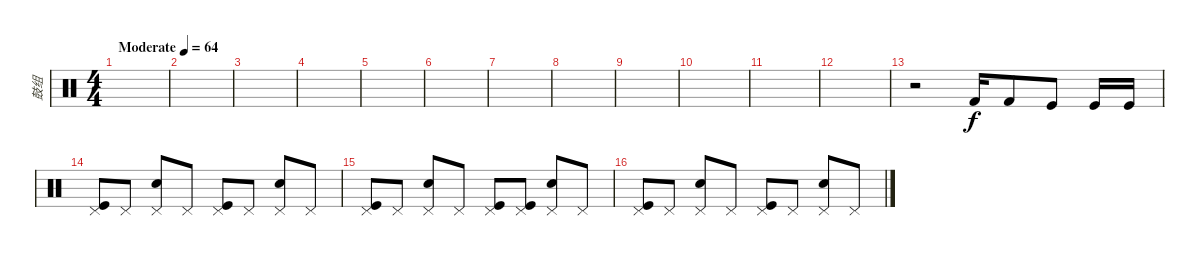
\track ("鼓组" "鼓组") {instrument percussion}
\staff {score}
\articulation defaults
\ts (4 4)
\tempo (64 "Moderate")
\clef neutral
\ks c
|
|
|
|
|
|
|
|
|
|
|
|
r.2 "Kick (hit) 2".16 "Kick (hit) 2".8 "Kick (hit)".8 "Kick (hit)".16 "Kick (hit)".16 |
("Kick (hit)" "Pedal Hi-Hat (hit)").8 "Pedal Hi-Hat (hit)".8 ("Snare (hit) 2" "Pedal Hi-Hat (hit)").8 "Pedal Hi-Hat (hit)".8 ("Kick (hit)" "Pedal Hi-Hat (hit)").8 "Pedal Hi-Hat (hit)".8 ("Snare (hit) 2" "Pedal Hi-Hat (hit)").8 "Pedal Hi-Hat (hit)".8 |
("Kick (hit)" "Pedal Hi-Hat (hit)").8 "Pedal Hi-Hat (hit)".8 ("Snare (hit) 2" "Pedal Hi-Hat (hit)").8 "Pedal Hi-Hat (hit)".8 ("Kick (hit)" "Pedal Hi-Hat (hit)").8 ("Kick (hit)" "Pedal Hi-Hat (hit)").8 ("Snare (hit) 2" "Pedal Hi-Hat (hit)").8 "Pedal Hi-Hat (hit)".8 |
("Kick (hit)" "Pedal Hi-Hat (hit)").8 "Pedal Hi-Hat (hit)".8 ("Snare (hit) 2" "Pedal Hi-Hat (hit)").8 "Pedal Hi-Hat (hit)".8 ("Kick (hit)" "Pedal Hi-Hat (hit)").8 "Pedal Hi-Hat (hit)".8 ("Snare (hit) 2" "Pedal Hi-Hat (hit)").8 "Pedal Hi-Hat (hit)".8
